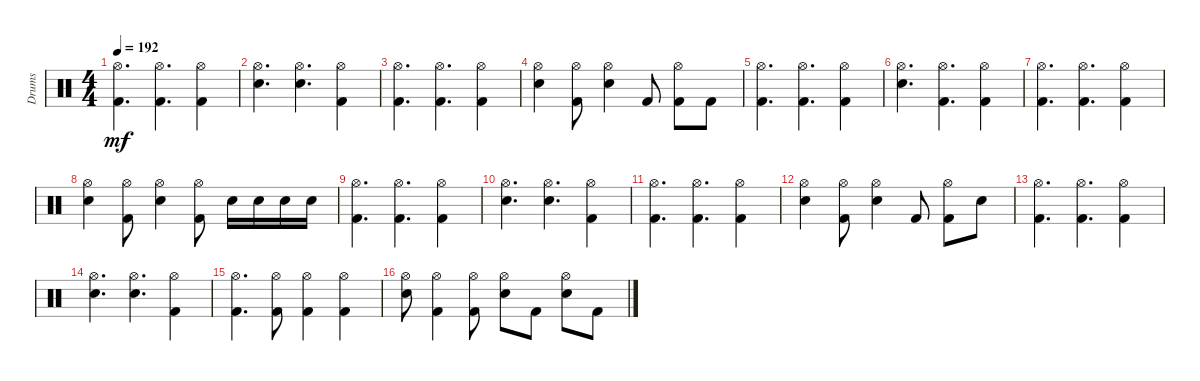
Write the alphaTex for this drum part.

\track ("Drums" "Drums") {instrument percussion}
\staff {score}
\articulation defaults
\ts (4 4)
\tempo 192
\clef neutral
\ks c
("Hi-Hat (open)" "Kick (hit) 2").4{d dy mf} ("Hi-Hat (open)" "Kick (hit) 2").4{d} ("Hi-Hat (open)" "Kick (hit) 2").4 |
("Hi-Hat (open)" "Electric Snare (hit)").4{d} ("Hi-Hat (open)" "Electric Snare (hit)").4{d} ("Hi-Hat (open)" "Kick (hit) 2").4 |
("Hi-Hat (open)" "Kick (hit) 2").4{d} ("Hi-Hat (open)" "Kick (hit) 2").4{d} ("Hi-Hat (open)" "Kick (hit) 2").4 |
("Hi-Hat (open)" "Electric Snare (hit)").4 ("Hi-Hat (open)" "Kick (hit) 2").8 ("Hi-Hat (open)" "Electric Snare (hit)").4 "Kick (hit) 2".8 ("Hi-Hat (open)" "Kick (hit) 2").8 "Kick (hit) 2".8 |
("Hi-Hat (open)" "Kick (hit) 2").4{d} ("Hi-Hat (open)" "Kick (hit) 2").4{d} ("Hi-Hat (open)" "Kick (hit) 2").4 |
("Hi-Hat (open)" "Electric Snare (hit)").4{d} ("Hi-Hat (open)" "Kick (hit) 2").4{d} ("Hi-Hat (open)" "Kick (hit) 2").4 |
("Hi-Hat (open)" "Kick (hit) 2").4{d} ("Hi-Hat (open)" "Kick (hit) 2").4{d} ("Hi-Hat (open)" "Kick (hit) 2").4 |
("Hi-Hat (open)" "Electric Snare (hit)").4 ("Hi-Hat (open)" "Kick (hit) 2").8 ("Hi-Hat (open)" "Electric Snare (hit)").4 ("Hi-Hat (open)" "Kick (hit) 2").8 "Electric Snare (hit)".16 "Electric Snare (hit)".16 "Electric Snare (hit)".16 "Electric Snare (hit)".16 |
("Hi-Hat (open)" "Kick (hit) 2").4{d} ("Hi-Hat (open)" "Kick (hit) 2").4{d} ("Hi-Hat (open)" "Kick (hit) 2").4 |
("Hi-Hat (open)" "Electric Snare (hit)").4{d} ("Hi-Hat (open)" "Electric Snare (hit)").4{d} ("Hi-Hat (open)" "Kick (hit) 2").4 |
("Hi-Hat (open)" "Kick (hit) 2").4{d} ("Hi-Hat (open)" "Kick (hit) 2").4{d} ("Hi-Hat (open)" "Kick (hit) 2").4 |
("Hi-Hat (open)" "Electric Snare (hit)").4 ("Hi-Hat (open)" "Kick (hit) 2").8 ("Hi-Hat (open)" "Electric Snare (hit)").4 "Kick (hit) 2".8 ("Hi-Hat (open)" "Kick (hit) 2").8 "Electric Snare (hit)".8 |
("Hi-Hat (open)" "Kick (hit) 2").4{d} ("Hi-Hat (open)" "Kick (hit) 2").4{d} ("Hi-Hat (open)" "Kick (hit) 2").4 |
("Hi-Hat (open)" "Electric Snare (hit)").4{d} ("Hi-Hat (open)" "Electric Snare (hit)").4{d} ("Hi-Hat (open)" "Kick (hit) 2").4 |
("Hi-Hat (open)" "Kick (hit) 2").4{d} ("Hi-Hat (open)" "Kick (hit) 2").8 ("Hi-Hat (open)" "Kick (hit) 2").4 ("Hi-Hat (open)" "Kick (hit) 2").4 |
("Hi-Hat (open)" "Electric Snare (hit)").8 ("Hi-Hat (open)" "Kick (hit) 2").4 ("Hi-Hat (open)" "Kick (hit) 2").8 ("Hi-Hat (open)" "Electric Snare (hit)").8 "Kick (hit) 2".8 ("Hi-Hat (open)" "Electric Snare (hit)").8 "Kick (hit) 2".8
